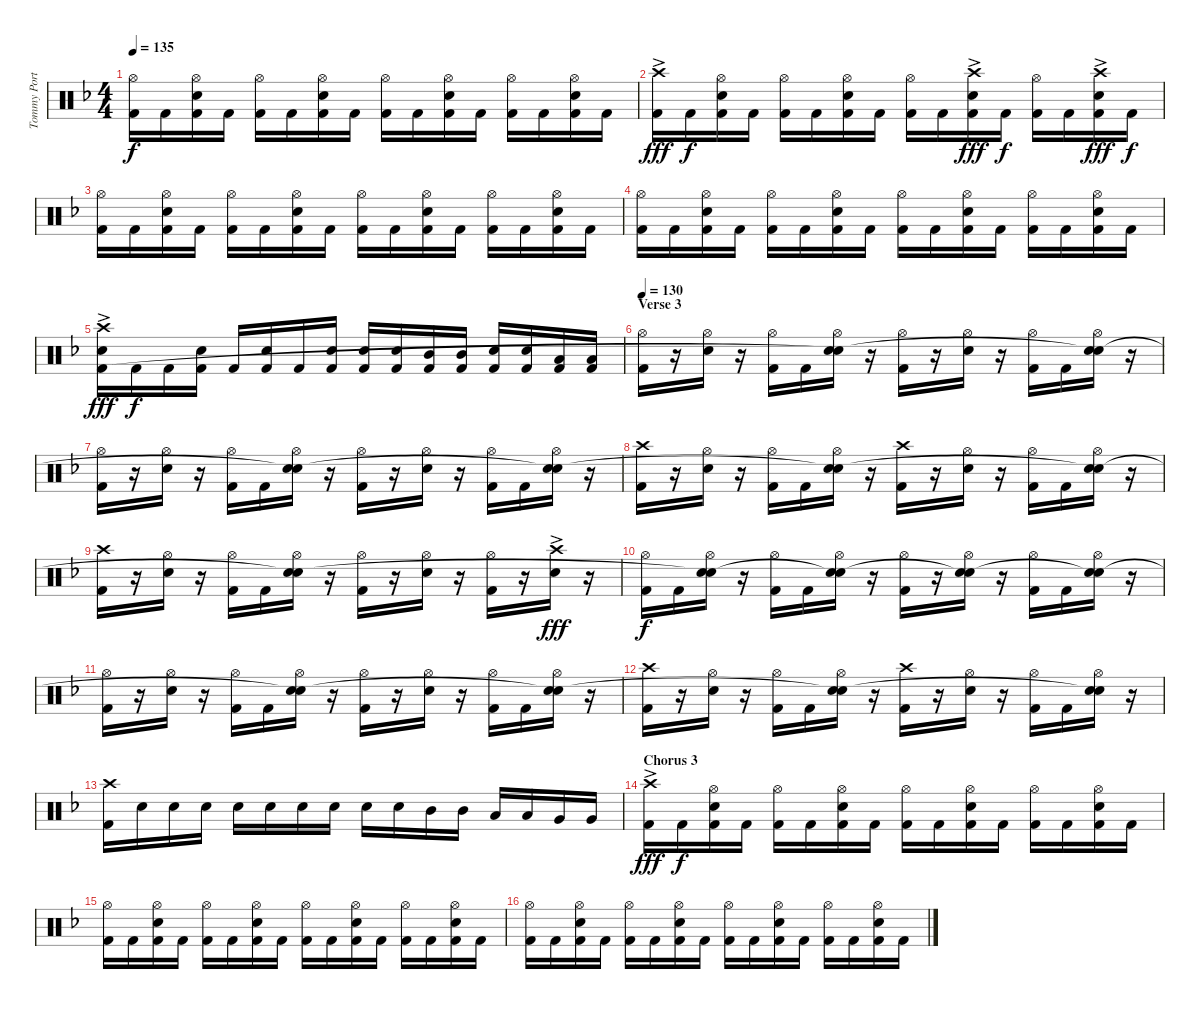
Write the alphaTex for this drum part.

\track ("Tommy Portimo" "Tommy Port") {instrument percussion}
\staff {score}
\articulation defaults
\ts (4 4)
\tempo 135
\clef neutral
\ks dminor
("Hi-Hat (open)" "Kick (hit) 2").16{dy f} "Kick (hit) 2".16 ("Hi-Hat (open)" "Electric Snare (hit)" "Kick (hit) 2").16 "Kick (hit) 2".16 ("Hi-Hat (open)" "Kick (hit) 2").16 "Kick (hit) 2".16 ("Hi-Hat (open)" "Electric Snare (hit)" "Kick (hit) 2").16 "Kick (hit) 2".16 ("Hi-Hat (open)" "Kick (hit) 2").16 "Kick (hit) 2".16 ("Hi-Hat (open)" "Electric Snare (hit)" "Kick (hit) 2").16 "Kick (hit) 2".16 ("Hi-Hat (open)" "Kick (hit) 2").16 "Kick (hit) 2".16 ("Hi-Hat (open)" "Electric Snare (hit)" "Kick (hit) 2").16 "Kick (hit) 2".16 |
("Crash high (hit)"{ac} "Kick (hit) 2").16{dy fff} "Kick (hit) 2".16{dy f} ("Hi-Hat (open)" "Electric Snare (hit)" "Kick (hit) 2").16 "Kick (hit) 2".16 ("Hi-Hat (open)" "Kick (hit) 2").16 "Kick (hit) 2".16 ("Hi-Hat (open)" "Electric Snare (hit)" "Kick (hit) 2").16 "Kick (hit) 2".16 ("Hi-Hat (open)" "Kick (hit) 2").16 "Kick (hit) 2".16 ("Crash high (hit)"{ac} "Electric Snare (hit)" "Kick (hit) 2").16{dy fff} "Kick (hit) 2".16{dy f} ("Hi-Hat (open)" "Kick (hit) 2").16 "Kick (hit) 2".16 ("Crash high (hit)"{ac} "Electric Snare (hit)" "Kick (hit) 2").16{dy fff} "Kick (hit) 2".16{dy f} |
("Hi-Hat (open)" "Kick (hit) 2").16 "Kick (hit) 2".16 ("Hi-Hat (open)" "Electric Snare (hit)" "Kick (hit) 2").16 "Kick (hit) 2".16 ("Hi-Hat (open)" "Kick (hit) 2").16 "Kick (hit) 2".16 ("Hi-Hat (open)" "Electric Snare (hit)" "Kick (hit) 2").16 "Kick (hit) 2".16 ("Hi-Hat (open)" "Kick (hit) 2").16 "Kick (hit) 2".16 ("Hi-Hat (open)" "Electric Snare (hit)" "Kick (hit) 2").16 "Kick (hit) 2".16 ("Hi-Hat (open)" "Kick (hit) 2").16 "Kick (hit) 2".16 ("Hi-Hat (open)" "Electric Snare (hit)" "Kick (hit) 2").16 "Kick (hit) 2".16 |
("Hi-Hat (open)" "Kick (hit) 2").16 "Kick (hit) 2".16 ("Hi-Hat (open)" "Electric Snare (hit)" "Kick (hit) 2").16 "Kick (hit) 2".16 ("Hi-Hat (open)" "Kick (hit) 2").16 "Kick (hit) 2".16 ("Hi-Hat (open)" "Electric Snare (hit)" "Kick (hit) 2").16 "Kick (hit) 2".16 ("Hi-Hat (open)" "Kick (hit) 2").16 "Kick (hit) 2".16 ("Hi-Hat (open)" "Electric Snare (hit)" "Kick (hit) 2").16 "Kick (hit) 2".16 ("Hi-Hat (open)" "Kick (hit) 2").16 "Kick (hit) 2".16 ("Hi-Hat (open)" "Electric Snare (hit)" "Kick (hit) 2").16 "Kick (hit) 2".16 |
("Crash high (hit)"{ac} "Electric Snare (hit)" "Kick (hit) 2").16{dy fff} "Kick (hit) 2".16{dy f} "Kick (hit) 2".16 ("Electric Snare (hit)" "Kick (hit) 2").16 "Kick (hit) 2".16 ("Electric Snare (hit)" "Kick (hit) 2").16 "Kick (hit) 2".16 ("Electric Snare (hit)" "Kick (hit) 2").16 ("Electric Snare (hit)" "Kick (hit) 2").16 ("Electric Snare (hit)" "Kick (hit) 2").16 ("Mid Tom (hit)" "Kick (hit) 2").16 ("Mid Tom (hit)" "Kick (hit) 2").16 ("Electric Snare (hit)" "Kick (hit) 2").16 ("Electric Snare (hit)" "Kick (hit) 2").16 ("Low Tom (hit)" "Kick (hit) 2").16 ("Low Tom (hit)" "Kick (hit) 2").16 |
\section ("" "Verse 3")
\tempo 130
("Hi-Hat (open)" "Kick (hit) 2").16 r.16 ("Hi-Hat (open)" "Electric Snare (hit)").16 r.16 ("Hi-Hat (open)" "Kick (hit) 2").16 "Kick (hit) 2".16 ("Hi-Hat (open)" "Electric Snare (hit)" "Snare (hit)"{t}).16 r.16 ("Hi-Hat (open)" "Kick (hit) 2").16 r.16 ("Hi-Hat (open)" "Electric Snare (hit)").16 r.16 ("Hi-Hat (open)" "Kick (hit) 2").16 "Kick (hit) 2".16 ("Hi-Hat (open)" "Electric Snare (hit)" "Snare (hit)"{t}).16 r.16 |
("Hi-Hat (open)" "Kick (hit) 2").16 r.16 ("Hi-Hat (open)" "Electric Snare (hit)").16 r.16 ("Hi-Hat (open)" "Kick (hit) 2").16 "Kick (hit) 2".16 ("Hi-Hat (open)" "Electric Snare (hit)" "Snare (hit)"{t}).16 r.16 ("Hi-Hat (open)" "Kick (hit) 2").16 r.16 ("Hi-Hat (open)" "Electric Snare (hit)").16 r.16 ("Hi-Hat (open)" "Kick (hit) 2").16 "Kick (hit) 2".16 ("Hi-Hat (open)" "Electric Snare (hit)" "Snare (hit)"{t}).16 r.16 |
("Crash high (hit)" "Kick (hit) 2").16 r.16 ("Hi-Hat (open)" "Electric Snare (hit)").16 r.16 ("Hi-Hat (open)" "Kick (hit) 2").16 "Kick (hit) 2".16 ("Hi-Hat (open)" "Electric Snare (hit)" "Snare (hit)"{t}).16 r.16 ("Crash high (hit)" "Kick (hit) 2").16 r.16 ("Hi-Hat (open)" "Electric Snare (hit)").16 r.16 ("Hi-Hat (open)" "Kick (hit) 2").16 "Kick (hit) 2".16 ("Hi-Hat (open)" "Electric Snare (hit)" "Snare (hit)"{t}).16 r.16 |
("Crash high (hit)" "Kick (hit) 2").16 r.16 ("Hi-Hat (open)" "Electric Snare (hit)").16 r.16 ("Hi-Hat (open)" "Kick (hit) 2").16 "Kick (hit) 2".16 ("Hi-Hat (open)" "Electric Snare (hit)" "Snare (hit)"{t}).16 r.16 ("Hi-Hat (open)" "Kick (hit) 2").16 r.16 ("Hi-Hat (open)" "Electric Snare (hit)").16 r.16 ("Hi-Hat (open)" "Kick (hit) 2").16 r.16 ("Crash high (hit)"{ac} "Electric Snare (hit)").16{dy fff} r.16 |
("Hi-Hat (open)" "Kick (hit) 2").16{dy f} "Kick (hit) 2".16 ("Hi-Hat (open)" "Electric Snare (hit)" "Snare (hit)"{t}).16 r.16 ("Hi-Hat (open)" "Kick (hit) 2").16 "Kick (hit) 2".16 ("Hi-Hat (open)" "Electric Snare (hit)" "Snare (hit)"{t}).16 r.16 ("Hi-Hat (open)" "Kick (hit) 2").16 r.16 ("Hi-Hat (open)" "Electric Snare (hit)" "Snare (hit)"{t}).16 r.16 ("Hi-Hat (open)" "Kick (hit) 2").16 "Kick (hit) 2".16 ("Hi-Hat (open)" "Electric Snare (hit)" "Snare (hit)"{t}).16 r.16 |
("Hi-Hat (open)" "Kick (hit) 2").16 r.16 ("Hi-Hat (open)" "Electric Snare (hit)").16 r.16 ("Hi-Hat (open)" "Kick (hit) 2").16 "Kick (hit) 2".16 ("Hi-Hat (open)" "Electric Snare (hit)" "Snare (hit)"{t}).16 r.16 ("Hi-Hat (open)" "Kick (hit) 2").16 r.16 ("Hi-Hat (open)" "Electric Snare (hit)").16 r.16 ("Hi-Hat (open)" "Kick (hit) 2").16 "Kick (hit) 2".16 ("Hi-Hat (open)" "Electric Snare (hit)" "Snare (hit)"{t}).16 r.16 |
("Crash high (hit)" "Kick (hit) 2").16 r.16 ("Hi-Hat (open)" "Electric Snare (hit)").16 r.16 ("Hi-Hat (open)" "Kick (hit) 2").16 "Kick (hit) 2".16 ("Hi-Hat (open)" "Electric Snare (hit)" "Snare (hit)"{t}).16 r.16 ("Crash high (hit)" "Kick (hit) 2").16 r.16 ("Hi-Hat (open)" "Electric Snare (hit)").16 r.16 ("Hi-Hat (open)" "Kick (hit) 2").16 "Kick (hit) 2".16 ("Hi-Hat (open)" "Electric Snare (hit)" "Snare (hit)"{t}).16 r.16 |
("Crash high (hit)" "Kick (hit) 2").16 "Electric Snare (hit)".16 "Electric Snare (hit)".16 "Electric Snare (hit)".16 "Electric Snare (hit)".16 "Electric Snare (hit)".16 "Electric Snare (hit)".16 "Electric Snare (hit)".16 "Electric Snare (hit)".16 "Electric Snare (hit)".16 "Mid Tom (hit)".16 "Mid Tom (hit)".16 "Low Tom (hit)".16 "Low Tom (hit)".16 "Very Low Tom (hit)".16 "Very Low Tom (hit)".16 |
\section ("" "Chorus 3")
("Crash high (hit)"{ac} "Kick (hit) 2").16{dy fff} "Kick (hit) 2".16{dy f} ("Hi-Hat (open)" "Electric Snare (hit)" "Kick (hit) 2").16 "Kick (hit) 2".16 ("Hi-Hat (open)" "Kick (hit) 2").16 "Kick (hit) 2".16 ("Hi-Hat (open)" "Electric Snare (hit)" "Kick (hit) 2").16 "Kick (hit) 2".16 ("Hi-Hat (open)" "Kick (hit) 2").16 "Kick (hit) 2".16 ("Hi-Hat (open)" "Electric Snare (hit)" "Kick (hit) 2").16 "Kick (hit) 2".16 ("Hi-Hat (open)" "Kick (hit) 2").16 "Kick (hit) 2".16 ("Hi-Hat (open)" "Electric Snare (hit)" "Kick (hit) 2").16 "Kick (hit) 2".16 |
("Hi-Hat (open)" "Kick (hit) 2").16 "Kick (hit) 2".16 ("Hi-Hat (open)" "Electric Snare (hit)" "Kick (hit) 2").16 "Kick (hit) 2".16 ("Hi-Hat (open)" "Kick (hit) 2").16 "Kick (hit) 2".16 ("Hi-Hat (open)" "Electric Snare (hit)" "Kick (hit) 2").16 "Kick (hit) 2".16 ("Hi-Hat (open)" "Kick (hit) 2").16 "Kick (hit) 2".16 ("Hi-Hat (open)" "Electric Snare (hit)" "Kick (hit) 2").16 "Kick (hit) 2".16 ("Hi-Hat (open)" "Kick (hit) 2").16 "Kick (hit) 2".16 ("Hi-Hat (open)" "Electric Snare (hit)" "Kick (hit) 2").16 "Kick (hit) 2".16 |
("Hi-Hat (open)" "Kick (hit) 2").16 "Kick (hit) 2".16 ("Hi-Hat (open)" "Electric Snare (hit)" "Kick (hit) 2").16 "Kick (hit) 2".16 ("Hi-Hat (open)" "Kick (hit) 2").16 "Kick (hit) 2".16 ("Hi-Hat (open)" "Electric Snare (hit)" "Kick (hit) 2").16 "Kick (hit) 2".16 ("Hi-Hat (open)" "Kick (hit) 2").16 "Kick (hit) 2".16 ("Hi-Hat (open)" "Electric Snare (hit)" "Kick (hit) 2").16 "Kick (hit) 2".16 ("Hi-Hat (open)" "Kick (hit) 2").16 "Kick (hit) 2".16 ("Hi-Hat (open)" "Electric Snare (hit)" "Kick (hit) 2").16 "Kick (hit) 2".16
